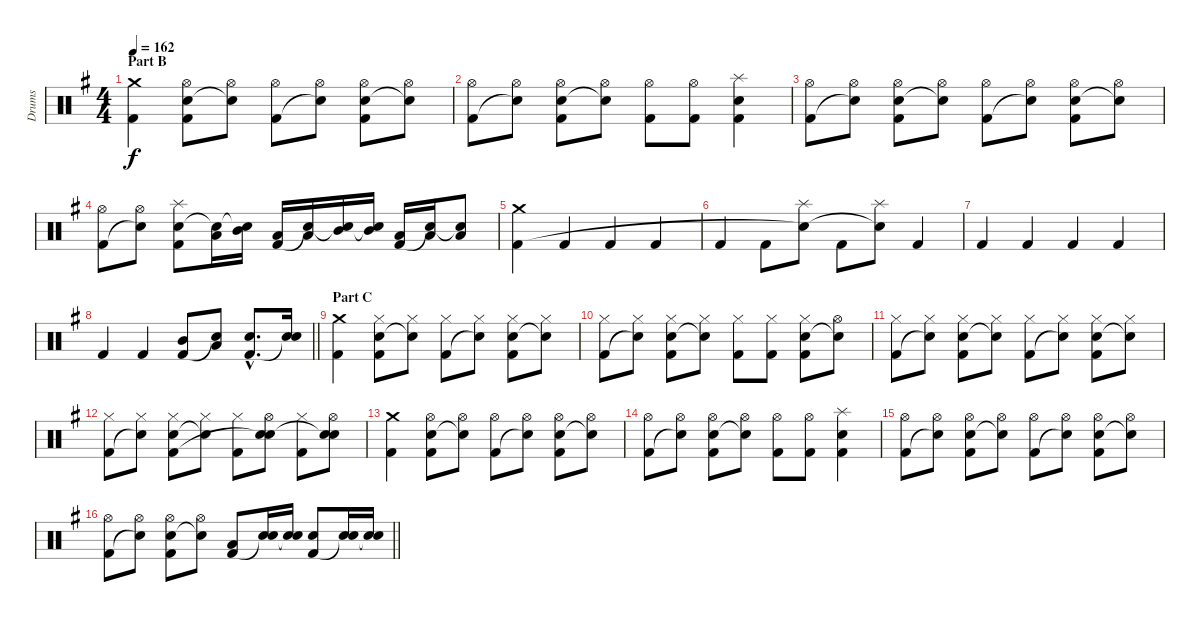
\track ("Drums" "Drums") {instrument percussion}
\staff {score}
\articulation defaults
\ts (4 4)
\section ("" "Part B")
\tempo 162
\clef neutral
\ks g
("Crash medium (hit)" "Kick (hit) 2").4{dy f} ("Hi-Hat (open)" "Electric Snare (hit)" "Kick (hit) 2").8 ("Hi-Hat (open)" "Snare (hit)"{t}).8 ("Hi-Hat (open)" "Kick (hit) 2").8 ("Hi-Hat (open)" "Snare (hit)"{t}).8 ("Hi-Hat (open)" "Electric Snare (hit)" "Kick (hit) 2").8 ("Hi-Hat (open)" "Snare (hit)"{t}).8 |
("Hi-Hat (open)" "Kick (hit) 2").8 ("Hi-Hat (open)" "Snare (hit)"{t}).8 ("Hi-Hat (open)" "Electric Snare (hit)" "Kick (hit) 2").8 ("Hi-Hat (open)" "Snare (hit)"{t}).8 ("Hi-Hat (open)" "Kick (hit) 2").8 ("Hi-Hat (open)" "Kick (hit) 2").8 ("Splash (hit)" "Electric Snare (hit)" "Kick (hit) 2").4 |
("Hi-Hat (open)" "Kick (hit) 2").8 ("Hi-Hat (open)" "Snare (hit)"{t}).8 ("Hi-Hat (open)" "Electric Snare (hit)" "Kick (hit) 2").8 ("Hi-Hat (open)" "Snare (hit)"{t}).8 ("Hi-Hat (open)" "Kick (hit) 2").8 ("Hi-Hat (open)" "Snare (hit)"{t}).8 ("Hi-Hat (open)" "Electric Snare (hit)" "Kick (hit) 2").8 ("Hi-Hat (open)" "Snare (hit)"{t}).8 |
("Hi-Hat (open)" "Kick (hit) 2").8 ("Hi-Hat (open)" "Snare (hit)"{t}).8 ("Splash (hit)" "Electric Snare (hit)" "Kick (hit) 2").8 ("Low Tom (hit)" "Snare (hit)"{t}).16 ("Mid Tom (hit)" "Snare (hit)"{t}).16 ("Low Tom (hit)" "Kick (hit) 2").16 ("Low Tom (hit)" "Snare (hit)"{t}).16 ("Mid Tom (hit)" "Snare (hit)"{t}).16 ("Mid Tom (hit)" "Snare (hit)"{t}).16 ("Low Tom (hit)" "Kick (hit) 2").16 ("Low Tom (hit)" "Snare (hit)"{t}).16 ("Low Tom (hit)" "Snare (hit)"{t}).8 |
("Crash medium (hit)" "Kick (hit) 2").4 "Kick (hit) 2".4 "Kick (hit) 2".4 "Kick (hit) 2".4 |
"Kick (hit) 2".4 "Kick (hit) 2".8 ("Splash (hit)" "Snare (hit)"{t}).8 "Kick (hit) 2".8 ("Splash (hit)" "Snare (hit)"{t}).8 "Kick (hit) 2".4 |
"Kick (hit) 2".4 "Kick (hit) 2".4 "Kick (hit) 2".4 "Kick (hit) 2".4 |
\barLineRight lightlight "Kick (hit) 2".4 "Kick (hit) 2".4
("Mid Tom (hit)" "Kick (hit) 2").8 ("Low Tom (hit)" "Snare (hit)"{t}).8 ("Electric Snare (hit)"{hac} "Kick (hit) 2"{hac}).8{d} ("Electric Snare (hit)" "Snare (hit)"{t}).16 |
\section ("" "Part C")
("Crash medium (hit)" "Kick (hit) 2").4 ("Hi-Hat (closed)" "Electric Snare (hit)" "Kick (hit) 2").8 ("Hi-Hat (closed)" "Snare (hit)"{t}).8 ("Hi-Hat (closed)" "Kick (hit) 2").8 ("Hi-Hat (closed)" "Snare (hit)"{t}).8 ("Hi-Hat (closed)" "Electric Snare (hit)" "Kick (hit) 2").8 ("Hi-Hat (closed)" "Snare (hit)"{t}).8 |
("Hi-Hat (closed)" "Kick (hit) 2").8 ("Hi-Hat (closed)" "Snare (hit)"{t}).8 ("Hi-Hat (closed)" "Electric Snare (hit)" "Kick (hit) 2").8 ("Hi-Hat (closed)" "Snare (hit)"{t}).8 ("Hi-Hat (closed)" "Kick (hit) 2").8 ("Hi-Hat (closed)" "Kick (hit) 2").8 ("Hi-Hat (closed)" "Electric Snare (hit)" "Kick (hit) 2").8 ("Hi-Hat (open)" "Snare (hit)"{t}).8 |
("Hi-Hat (closed)" "Kick (hit) 2").8 ("Hi-Hat (closed)" "Snare (hit)"{t}).8 ("Hi-Hat (closed)" "Electric Snare (hit)" "Kick (hit) 2").8 ("Hi-Hat (closed)" "Snare (hit)"{t}).8 ("Hi-Hat (closed)" "Kick (hit) 2").8 ("Hi-Hat (closed)" "Snare (hit)"{t}).8 ("Hi-Hat (closed)" "Electric Snare (hit)" "Kick (hit) 2").8 ("Hi-Hat (closed)" "Snare (hit)"{t}).8 |
("Hi-Hat (closed)" "Kick (hit) 2").8 ("Hi-Hat (closed)" "Snare (hit)"{t}).8 ("Hi-Hat (closed)" "Electric Snare (hit)" "Kick (hit) 2").8 ("Hi-Hat (closed)" "Snare (hit)"{t}).8 ("Hi-Hat (closed)" "Kick (hit) 2").8 ("Hi-Hat (open)" "Electric Snare (hit)" "Snare (hit)"{t}).8 ("Hi-Hat (closed)" "Kick (hit) 2").8 ("Hi-Hat (open)" "Electric Snare (hit)" "Snare (hit)"{t}).8 |
("Crash medium (hit)" "Kick (hit) 2").4 ("Hi-Hat (open)" "Electric Snare (hit)" "Kick (hit) 2").8 ("Hi-Hat (open)" "Snare (hit)"{t}).8 ("Hi-Hat (open)" "Kick (hit) 2").8 ("Hi-Hat (open)" "Snare (hit)"{t}).8 ("Hi-Hat (open)" "Electric Snare (hit)" "Kick (hit) 2").8 ("Hi-Hat (open)" "Snare (hit)"{t}).8 |
("Hi-Hat (open)" "Kick (hit) 2").8 ("Hi-Hat (open)" "Snare (hit)"{t}).8 ("Hi-Hat (open)" "Electric Snare (hit)" "Kick (hit) 2").8 ("Hi-Hat (open)" "Snare (hit)"{t}).8 ("Hi-Hat (open)" "Kick (hit) 2").8 ("Hi-Hat (open)" "Kick (hit) 2").8 ("Splash (hit)" "Electric Snare (hit)" "Kick (hit) 2").4 |
("Hi-Hat (open)" "Kick (hit) 2").8 ("Hi-Hat (open)" "Snare (hit)"{t}).8 ("Hi-Hat (open)" "Electric Snare (hit)" "Kick (hit) 2").8 ("Hi-Hat (open)" "Snare (hit)"{t}).8 ("Hi-Hat (open)" "Kick (hit) 2").8 ("Hi-Hat (open)" "Snare (hit)"{t}).8 ("Hi-Hat (open)" "Electric Snare (hit)" "Kick (hit) 2").8 ("Hi-Hat (open)" "Snare (hit)"{t}).8 |
\barLineRight lightlight
("Hi-Hat (open)" "Kick (hit) 2").8 ("Hi-Hat (open)" "Snare (hit)"{t}).8 ("Hi-Hat (open)" "Electric Snare (hit)" "Kick (hit) 2").8 ("Hi-Hat (open)" "Snare (hit)"{t}).8 ("Low Floor Tom (hit)" "Kick (hit) 2").8 ("Electric Snare (hit)" "Snare (hit)"{t}).16 ("Electric Snare (hit)" "Snare (hit)"{t}).16 ("Electric Snare (hit)" "Kick (hit) 2").8 ("Electric Snare (hit)" "Snare (hit)"{t}).16 ("Electric Snare (hit)" "Snare (hit)"{t}).16
